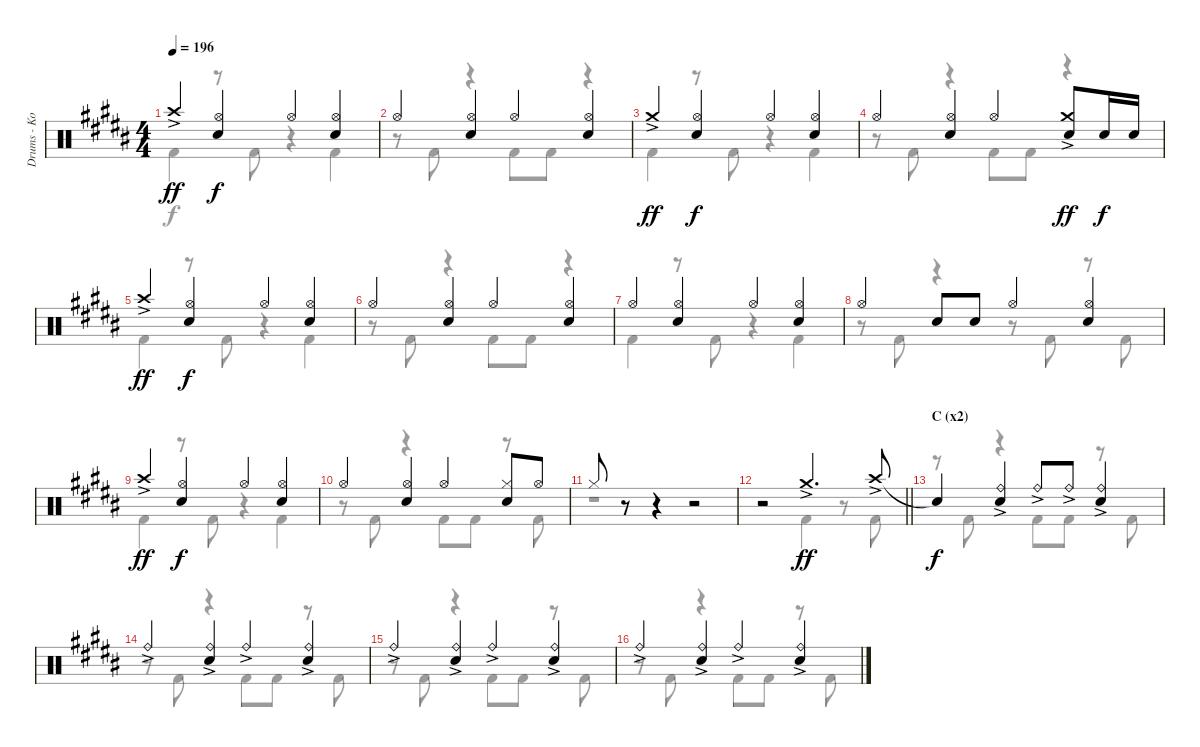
\track ("Drums - Koji Hasegawa" "Drums - Ko") {instrument percussion}
\staff {score}
\articulation defaults
\voice
\ts (4 4)
\tempo 196
\clef neutral
\ks b "Crash high (hit)"{ac}.4{dy ff}
("Hi-Hat (open)" "Snare (hit) 2").4{dy f} "Hi-Hat (open)".4 ("Hi-Hat (open)" "Snare (hit) 2").4 |
"Hi-Hat (open)".4 ("Hi-Hat (open)" "Snare (hit) 2").4 "Hi-Hat (open)".4 ("Hi-Hat (open)" "Snare (hit) 2").4 |
"Crash medium (hit)"{ac}.4{dy ff} ("Hi-Hat (open)" "Snare (hit) 2").4{dy f} "Hi-Hat (open)".4 ("Hi-Hat (open)" "Snare (hit) 2").4 |
"Hi-Hat (open)".4 ("Hi-Hat (open)" "Snare (hit) 2").4 "Hi-Hat (open)".4 ("Crash medium (hit)"{ac} "Snare (hit) 2").8{dy ff} "Snare (hit) 2".16{dy f} "Snare (hit) 2".16 |
"Crash high (hit)"{ac}.4{dy ff} ("Hi-Hat (open)" "Snare (hit) 2").4{dy f} "Hi-Hat (open)".4 ("Hi-Hat (open)" "Snare (hit) 2").4 |
"Hi-Hat (open)".4 ("Hi-Hat (open)" "Snare (hit) 2").4 "Hi-Hat (open)".4 ("Hi-Hat (open)" "Snare (hit) 2").4 |
"Hi-Hat (open)".4 ("Hi-Hat (open)" "Snare (hit) 2").4 "Hi-Hat (open)".4 ("Hi-Hat (open)" "Snare (hit) 2").4 |
"Hi-Hat (open)".4 "Snare (hit) 2".8 "Snare (hit) 2".8 "Hi-Hat (open)".4 ("Hi-Hat (open)" "Snare (hit) 2").4 |
"Crash high (hit)"{ac}.4{dy ff} ("Hi-Hat (open)" "Snare (hit) 2").4{dy f} "Hi-Hat (open)".4 ("Hi-Hat (open)" "Snare (hit) 2").4 |
"Hi-Hat (open)".4 ("Hi-Hat (open)" "Snare (hit) 2").4 "Hi-Hat (open)".4 ("Hi-Hat (closed)" "Snare (hit) 2").8 "Hi-Hat (open)".8 |
"Hi-Hat (closed)".8 r.8 r.4 r.2 |
\barLineRight lightlight
r.2 "Crash medium (hit)"{ac}.4{d dy ff} "Crash high (hit)"{ac}.8 |
\section ("" "C (x2)")
"Snare (hit)"{t}.4{dy f} ("Ride (bell)"{ac} "Snare (hit) 2").4 "Ride (bell)"{ac}.8 "Ride (bell)"{ac}.8 ("Ride (bell)"{ac} "Snare (hit) 2").4 |
"Ride (bell)"{ac}.4 ("Ride (bell)"{ac} "Snare (hit) 2").4 "Ride (bell)"{ac}.4 ("Ride (bell)"{ac} "Snare (hit) 2").4 |
"Ride (bell)"{ac}.4 ("Ride (bell)"{ac} "Snare (hit) 2").4 "Ride (bell)"{ac}.4 ("Ride (bell)"{ac} "Snare (hit) 2").4 |
"Ride (bell)"{ac}.4 ("Ride (bell)"{ac} "Snare (hit) 2").4 "Ride (bell)"{ac}.4 ("Ride (bell)"{ac} "Snare (hit) 2").4
\voice
\clef neutral
\ottava regular
\simile none
\ks b "Kick (hit) 2".4{dy f}
r.8 "Kick (hit) 2".8 r.4 "Kick (hit) 2".4 |
r.8 "Kick (hit) 2".8 r.4 "Kick (hit) 2".8 "Kick (hit) 2".8 r.4 |
"Kick (hit) 2".4 r.8 "Kick (hit) 2".8 r.4 "Kick (hit) 2".4 |
r.8 "Kick (hit) 2".8 r.4 "Kick (hit) 2".8 "Kick (hit) 2".8 r.4 |
"Kick (hit) 2".4 r.8 "Kick (hit) 2".8 r.4 "Kick (hit) 2".4 |
r.8 "Kick (hit) 2".8 r.4 "Kick (hit) 2".8 "Kick (hit) 2".8 r.4 |
"Kick (hit) 2".4 r.8 "Kick (hit) 2".8 r.4 "Kick (hit) 2".4 |
r.8 "Kick (hit) 2".8 r.4 r.8 "Kick (hit) 2".8 r.8 "Kick (hit) 2".8 |
"Kick (hit) 2".4 r.8 "Kick (hit) 2".8 r.4 "Kick (hit) 2".4 |
r.8 "Kick (hit) 2".8 r.4 "Kick (hit) 2".8 "Kick (hit) 2".8 r.8 "Kick (hit) 2".8 |
r.1 |
\barLineRight lightlight
r.2 "Kick (hit) 2".4 r.8 "Kick (hit) 2".8 |
r.8 "Kick (hit) 2".8 r.4 "Kick (hit) 2".8 "Kick (hit) 2".8 r.8 "Kick (hit) 2".8 |
r.8 "Kick (hit) 2".8 r.4 "Kick (hit) 2".8 "Kick (hit) 2".8 r.8 "Kick (hit) 2".8 |
r.8 "Kick (hit) 2".8 r.4 "Kick (hit) 2".8 "Kick (hit) 2".8 r.8 "Kick (hit) 2".8 |
r.8 "Kick (hit) 2".8 r.4 "Kick (hit) 2".8 "Kick (hit) 2".8 r.8 "Kick (hit) 2".8
